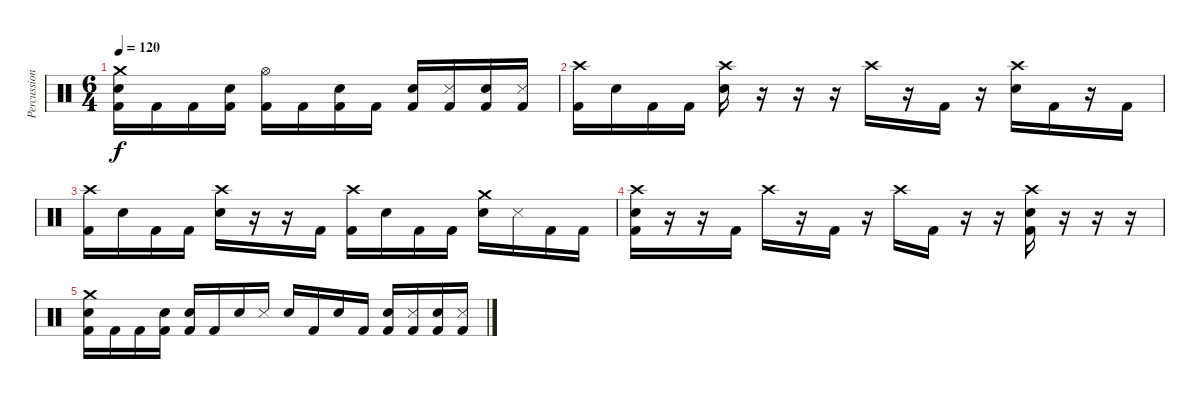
\track ("Percussion" "Percussion") {instrument percussion}
\staff {score}
\articulation defaults
\ts (6 4)
\tempo 120
\clef neutral
\ks c
("Crash medium (hit)" "Snare (hit) 2" "Kick (hit) 2").16{dy f} "Kick (hit) 2".16 "Kick (hit) 2".16 ("Snare (hit) 2" "Kick (hit) 2").16 ("Hi-Hat (open)" "Kick (hit) 2").16 "Kick (hit) 2".16 ("Snare (hit) 2" "Kick (hit) 2").16 "Kick (hit) 2".16 ("Snare (hit) 2" "Kick (hit) 2").16 ("Metronome (hit)" "Kick (hit) 2").16 ("Snare (hit) 2" "Kick (hit) 2").16 ("Metronome (hit)" "Kick (hit) 2").16 |
("Crash high (hit)" "Kick (hit) 2").16 "Snare (hit) 2".16 "Kick (hit) 2".16 "Kick (hit) 2".16 ("Crash high (hit)" "Snare (hit) 2").16 r.16 r.16 r.16 "Crash high (hit)".16 r.16 "Kick (hit) 2".16 r.16 ("Crash high (hit)" "Snare (hit) 2").16 "Kick (hit) 2".16 r.16 "Kick (hit) 2".16 |
("Crash high (hit)" "Kick (hit) 2").16 "Snare (hit) 2".16 "Kick (hit) 2".16 "Kick (hit) 2".16 ("Crash high (hit)" "Snare (hit) 2").16 r.16 r.16 "Kick (hit) 2".16 ("Crash high (hit)" "Kick (hit) 2").16 "Snare (hit) 2".16 "Kick (hit) 2".16 "Kick (hit) 2".16 ("Crash medium (hit)" "Snare (hit) 2").16 "Metronome (hit)".16 "Kick (hit) 2".16 "Kick (hit) 2".16 |
("Crash high (hit)" "Snare (hit) 2" "Kick (hit) 2").16 r.16 r.16 "Kick (hit) 2".16 "Crash high (hit)".16 r.16 "Kick (hit) 2".16 r.16 "Crash high (hit)".16 "Kick (hit) 2".16 r.16 r.16 ("Crash high (hit)" "Snare (hit) 2" "Kick (hit) 2").16 r.16 r.16 r.16 |
("Crash medium (hit)" "Snare (hit) 2" "Kick (hit) 2").16 "Kick (hit) 2".16 "Kick (hit) 2".16 ("Snare (hit) 2" "Kick (hit) 2").16 ("Snare (hit)" "Kick (hit) 2").16 "Kick (hit) 2".16 "Snare (hit) 2".16 "Metronome (hit)".16 "Snare (hit) 2".16 "Kick (hit) 2".16 "Snare (hit) 2".16 "Kick (hit) 2".16 ("Snare (hit) 2" "Kick (hit) 2").16 ("Metronome (hit)" "Kick (hit) 2").16 ("Snare (hit) 2" "Kick (hit) 2").16 ("Metronome (hit)" "Kick (hit) 2").16
